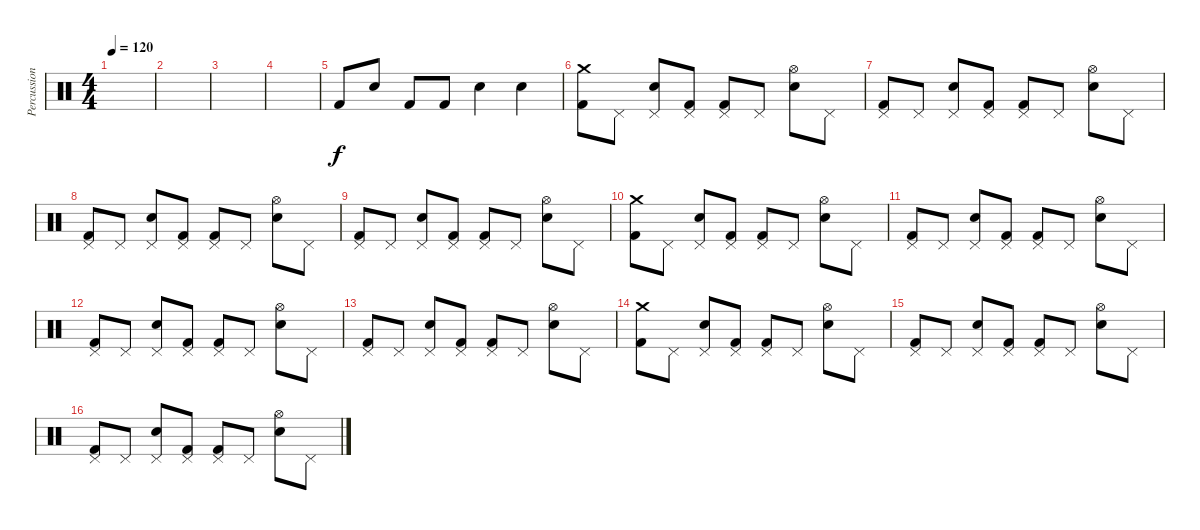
\track ("Percussions" "Percussion") {instrument percussion}
\staff {score}
\articulation defaults
\ts (4 4)
\tempo 120
\clef neutral
\ks c
|
|
|
|
"Kick (hit) 2".8 "Snare (hit) 2".8 "Kick (hit) 2".8 "Kick (hit) 2".8 "Snare (hit) 2".4 "Snare (hit) 2".4 |
("Crash medium (hit)" "Kick (hit) 2").8 "Pedal Hi-Hat (hit)".8 ("Pedal Hi-Hat (hit)" "Snare (hit) 2").8 ("Pedal Hi-Hat (hit)" "Kick (hit) 2").8 ("Pedal Hi-Hat (hit)" "Kick (hit) 2").8 "Pedal Hi-Hat (hit)".8 ("Hi-Hat (open)" "Snare (hit) 2").8 "Pedal Hi-Hat (hit)".8 |
("Pedal Hi-Hat (hit)" "Kick (hit) 2").8 "Pedal Hi-Hat (hit)".8 ("Pedal Hi-Hat (hit)" "Snare (hit) 2").8 ("Pedal Hi-Hat (hit)" "Kick (hit) 2").8 ("Pedal Hi-Hat (hit)" "Kick (hit) 2").8 "Pedal Hi-Hat (hit)".8 ("Hi-Hat (open)" "Snare (hit) 2").8 "Pedal Hi-Hat (hit)".8 |
("Pedal Hi-Hat (hit)" "Kick (hit) 2").8 "Pedal Hi-Hat (hit)".8 ("Pedal Hi-Hat (hit)" "Snare (hit) 2").8 ("Pedal Hi-Hat (hit)" "Kick (hit) 2").8 ("Pedal Hi-Hat (hit)" "Kick (hit) 2").8 "Pedal Hi-Hat (hit)".8 ("Hi-Hat (open)" "Snare (hit) 2").8 "Pedal Hi-Hat (hit)".8 |
("Pedal Hi-Hat (hit)" "Kick (hit) 2").8 "Pedal Hi-Hat (hit)".8 ("Pedal Hi-Hat (hit)" "Snare (hit) 2").8 ("Pedal Hi-Hat (hit)" "Kick (hit) 2").8 ("Pedal Hi-Hat (hit)" "Kick (hit) 2").8 "Pedal Hi-Hat (hit)".8 ("Hi-Hat (open)" "Snare (hit) 2").8 "Pedal Hi-Hat (hit)".8 |
("Crash medium (hit)" "Kick (hit) 2").8 "Pedal Hi-Hat (hit)".8 ("Pedal Hi-Hat (hit)" "Snare (hit) 2").8 ("Pedal Hi-Hat (hit)" "Kick (hit) 2").8 ("Pedal Hi-Hat (hit)" "Kick (hit) 2").8 "Pedal Hi-Hat (hit)".8 ("Hi-Hat (open)" "Snare (hit) 2").8 "Pedal Hi-Hat (hit)".8 |
("Pedal Hi-Hat (hit)" "Kick (hit) 2").8 "Pedal Hi-Hat (hit)".8 ("Pedal Hi-Hat (hit)" "Snare (hit) 2").8 ("Pedal Hi-Hat (hit)" "Kick (hit) 2").8 ("Pedal Hi-Hat (hit)" "Kick (hit) 2").8 "Pedal Hi-Hat (hit)".8 ("Hi-Hat (open)" "Snare (hit) 2").8 "Pedal Hi-Hat (hit)".8 |
("Pedal Hi-Hat (hit)" "Kick (hit) 2").8 "Pedal Hi-Hat (hit)".8 ("Pedal Hi-Hat (hit)" "Snare (hit) 2").8 ("Pedal Hi-Hat (hit)" "Kick (hit) 2").8 ("Pedal Hi-Hat (hit)" "Kick (hit) 2").8 "Pedal Hi-Hat (hit)".8 ("Hi-Hat (open)" "Snare (hit) 2").8 "Pedal Hi-Hat (hit)".8 |
("Pedal Hi-Hat (hit)" "Kick (hit) 2").8 "Pedal Hi-Hat (hit)".8 ("Pedal Hi-Hat (hit)" "Snare (hit) 2").8 ("Pedal Hi-Hat (hit)" "Kick (hit) 2").8 ("Pedal Hi-Hat (hit)" "Kick (hit) 2").8 "Pedal Hi-Hat (hit)".8 ("Hi-Hat (open)" "Snare (hit) 2").8 "Pedal Hi-Hat (hit)".8 |
("Crash medium (hit)" "Kick (hit) 2").8 "Pedal Hi-Hat (hit)".8 ("Pedal Hi-Hat (hit)" "Snare (hit) 2").8 ("Pedal Hi-Hat (hit)" "Kick (hit) 2").8 ("Pedal Hi-Hat (hit)" "Kick (hit) 2").8 "Pedal Hi-Hat (hit)".8 ("Hi-Hat (open)" "Snare (hit) 2").8 "Pedal Hi-Hat (hit)".8 |
("Pedal Hi-Hat (hit)" "Kick (hit) 2").8 "Pedal Hi-Hat (hit)".8 ("Pedal Hi-Hat (hit)" "Snare (hit) 2").8 ("Pedal Hi-Hat (hit)" "Kick (hit) 2").8 ("Pedal Hi-Hat (hit)" "Kick (hit) 2").8 "Pedal Hi-Hat (hit)".8 ("Hi-Hat (open)" "Snare (hit) 2").8 "Pedal Hi-Hat (hit)".8 |
("Pedal Hi-Hat (hit)" "Kick (hit) 2").8 "Pedal Hi-Hat (hit)".8 ("Pedal Hi-Hat (hit)" "Snare (hit) 2").8 ("Pedal Hi-Hat (hit)" "Kick (hit) 2").8 ("Pedal Hi-Hat (hit)" "Kick (hit) 2").8 "Pedal Hi-Hat (hit)".8 ("Hi-Hat (open)" "Snare (hit) 2").8 "Pedal Hi-Hat (hit)".8
